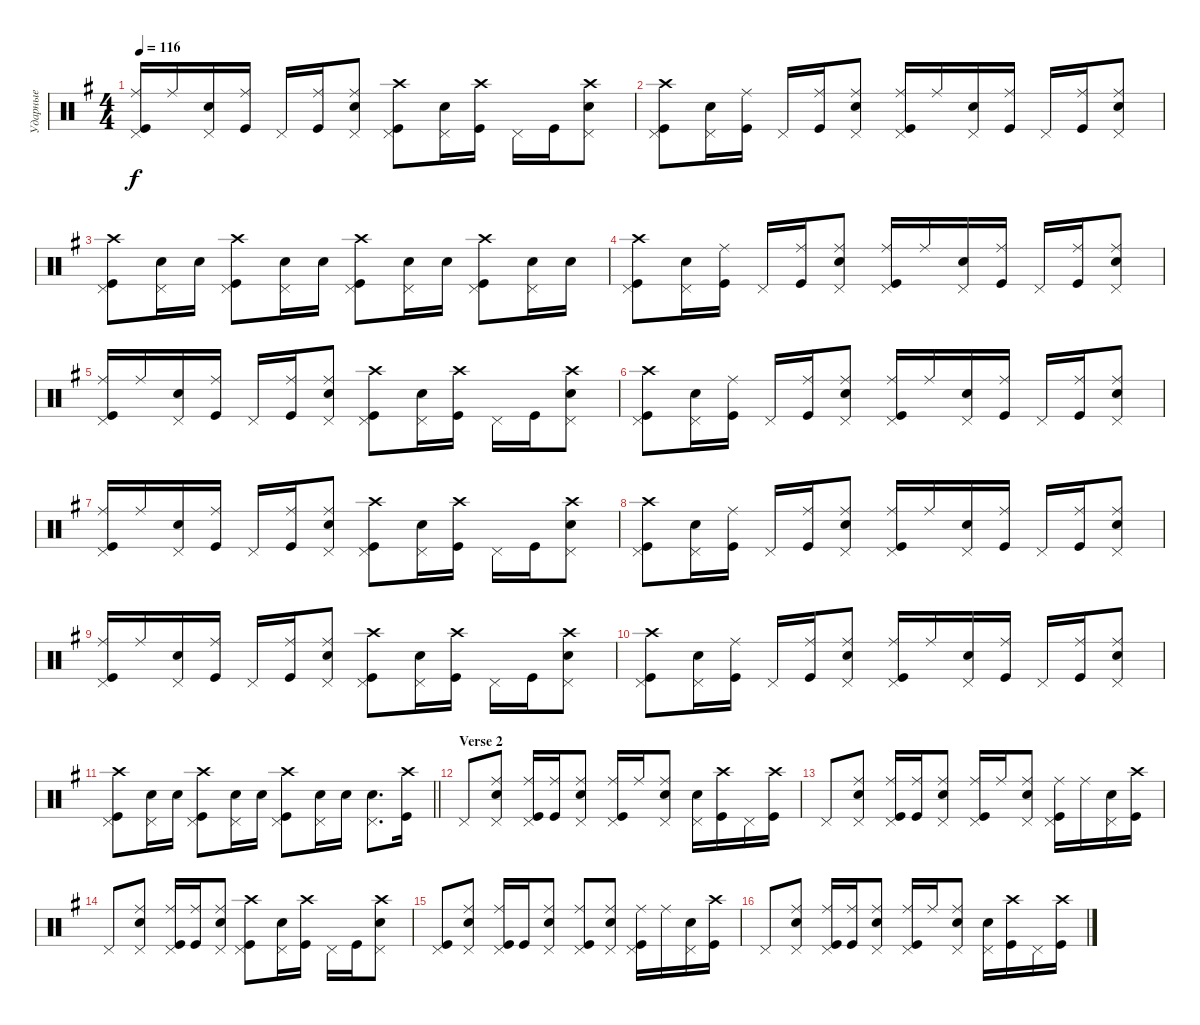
\track ("Ударные" "Ударные") {instrument percussion}
\staff {score}
\articulation defaults
\ts (4 4)
\tempo 116
\clef neutral
\ks eminor
("Kick (hit)" "Ride (middle)" "Pedal Hi-Hat (hit)").16{dy f} "Ride (middle)".16 ("Snare (hit) 2" "Pedal Hi-Hat (hit)").16 ("Kick (hit)" "Ride (middle)").16 "Pedal Hi-Hat (hit)".16 ("Ride (middle)" "Kick (hit)").16 ("Snare (hit) 2" "Ride (middle)" "Pedal Hi-Hat (hit)").8 ("Kick (hit)" "Crash high (hit)" "Pedal Hi-Hat (hit)").8 ("Snare (hit) 2" "Pedal Hi-Hat (hit)").16 ("Kick (hit)" "Crash high (hit)").16 "Pedal Hi-Hat (hit)".16 "Kick (hit)".16 ("Crash high (hit)" "Snare (hit) 2" "Pedal Hi-Hat (hit)").8 |
("Kick (hit)" "Crash high (hit)" "Pedal Hi-Hat (hit)").8 ("Snare (hit) 2" "Pedal Hi-Hat (hit)").16 ("Kick (hit)" "Ride (middle)").16 "Pedal Hi-Hat (hit)".16 ("Ride (middle)" "Kick (hit)").16 ("Snare (hit) 2" "Ride (middle)" "Pedal Hi-Hat (hit)").8 ("Kick (hit)" "Ride (middle)" "Pedal Hi-Hat (hit)").16 "Ride (middle)".16 ("Snare (hit) 2" "Pedal Hi-Hat (hit)").16 ("Kick (hit)" "Ride (middle)").16 "Pedal Hi-Hat (hit)".16 ("Ride (middle)" "Kick (hit)").16 ("Ride (middle)" "Snare (hit) 2" "Pedal Hi-Hat (hit)").8 |
("Kick (hit)" "Crash high (hit)" "Pedal Hi-Hat (hit)").8 ("Snare (hit) 2" "Pedal Hi-Hat (hit)").16 "Snare (hit) 2".16 ("Kick (hit)" "Crash high (hit)" "Pedal Hi-Hat (hit)").8 ("Snare (hit) 2" "Pedal Hi-Hat (hit)").16 "Snare (hit) 2".16 ("Kick (hit)" "Crash high (hit)" "Pedal Hi-Hat (hit)").8 ("Snare (hit) 2" "Pedal Hi-Hat (hit)").16 "Snare (hit) 2".16 ("Kick (hit)" "Crash high (hit)" "Pedal Hi-Hat (hit)").8 ("Snare (hit) 2" "Pedal Hi-Hat (hit)").16 "Snare (hit) 2".16 |
("Kick (hit)" "Crash high (hit)" "Pedal Hi-Hat (hit)").8 ("Snare (hit) 2" "Pedal Hi-Hat (hit)").16 ("Kick (hit)" "Ride (middle)").16 "Pedal Hi-Hat (hit)".16 ("Ride (middle)" "Kick (hit)").16 ("Snare (hit) 2" "Ride (middle)" "Pedal Hi-Hat (hit)").8 ("Kick (hit)" "Ride (middle)" "Pedal Hi-Hat (hit)").16 "Ride (middle)".16 ("Snare (hit) 2" "Pedal Hi-Hat (hit)").16 ("Kick (hit)" "Ride (middle)").16 "Pedal Hi-Hat (hit)".16 ("Ride (middle)" "Kick (hit)").16 ("Ride (middle)" "Snare (hit) 2" "Pedal Hi-Hat (hit)").8 |
("Kick (hit)" "Ride (middle)" "Pedal Hi-Hat (hit)").16 "Ride (middle)".16 ("Snare (hit) 2" "Pedal Hi-Hat (hit)").16 ("Kick (hit)" "Ride (middle)").16 "Pedal Hi-Hat (hit)".16 ("Ride (middle)" "Kick (hit)").16 ("Snare (hit) 2" "Ride (middle)" "Pedal Hi-Hat (hit)").8 ("Kick (hit)" "Crash high (hit)" "Pedal Hi-Hat (hit)").8 ("Snare (hit) 2" "Pedal Hi-Hat (hit)").16 ("Kick (hit)" "Crash high (hit)").16 "Pedal Hi-Hat (hit)".16 "Kick (hit)".16 ("Crash high (hit)" "Snare (hit) 2" "Pedal Hi-Hat (hit)").8 |
("Kick (hit)" "Crash high (hit)" "Pedal Hi-Hat (hit)").8 ("Snare (hit) 2" "Pedal Hi-Hat (hit)").16 ("Kick (hit)" "Ride (middle)").16 "Pedal Hi-Hat (hit)".16 ("Ride (middle)" "Kick (hit)").16 ("Snare (hit) 2" "Ride (middle)" "Pedal Hi-Hat (hit)").8 ("Kick (hit)" "Ride (middle)" "Pedal Hi-Hat (hit)").16 "Ride (middle)".16 ("Snare (hit) 2" "Pedal Hi-Hat (hit)").16 ("Kick (hit)" "Ride (middle)").16 "Pedal Hi-Hat (hit)".16 ("Ride (middle)" "Kick (hit)").16 ("Ride (middle)" "Snare (hit) 2" "Pedal Hi-Hat (hit)").8 |
("Kick (hit)" "Ride (middle)" "Pedal Hi-Hat (hit)").16 "Ride (middle)".16 ("Snare (hit) 2" "Pedal Hi-Hat (hit)").16 ("Kick (hit)" "Ride (middle)").16 "Pedal Hi-Hat (hit)".16 ("Ride (middle)" "Kick (hit)").16 ("Snare (hit) 2" "Ride (middle)" "Pedal Hi-Hat (hit)").8 ("Kick (hit)" "Crash high (hit)" "Pedal Hi-Hat (hit)").8 ("Snare (hit) 2" "Pedal Hi-Hat (hit)").16 ("Kick (hit)" "Crash high (hit)").16 "Pedal Hi-Hat (hit)".16 "Kick (hit)".16 ("Crash high (hit)" "Snare (hit) 2" "Pedal Hi-Hat (hit)").8 |
("Kick (hit)" "Crash high (hit)" "Pedal Hi-Hat (hit)").8 ("Snare (hit) 2" "Pedal Hi-Hat (hit)").16 ("Kick (hit)" "Ride (middle)").16 "Pedal Hi-Hat (hit)".16 ("Ride (middle)" "Kick (hit)").16 ("Snare (hit) 2" "Ride (middle)" "Pedal Hi-Hat (hit)").8 ("Kick (hit)" "Ride (middle)" "Pedal Hi-Hat (hit)").16 "Ride (middle)".16 ("Snare (hit) 2" "Pedal Hi-Hat (hit)").16 ("Kick (hit)" "Ride (middle)").16 "Pedal Hi-Hat (hit)".16 ("Ride (middle)" "Kick (hit)").16 ("Ride (middle)" "Snare (hit) 2" "Pedal Hi-Hat (hit)").8 |
("Kick (hit)" "Ride (middle)" "Pedal Hi-Hat (hit)").16 "Ride (middle)".16 ("Snare (hit) 2" "Pedal Hi-Hat (hit)").16 ("Kick (hit)" "Ride (middle)").16 "Pedal Hi-Hat (hit)".16 ("Ride (middle)" "Kick (hit)").16 ("Snare (hit) 2" "Ride (middle)" "Pedal Hi-Hat (hit)").8 ("Kick (hit)" "Crash high (hit)" "Pedal Hi-Hat (hit)").8 ("Snare (hit) 2" "Pedal Hi-Hat (hit)").16 ("Kick (hit)" "Crash high (hit)").16 "Pedal Hi-Hat (hit)".16 "Kick (hit)".16 ("Crash high (hit)" "Snare (hit) 2" "Pedal Hi-Hat (hit)").8 |
("Kick (hit)" "Crash high (hit)" "Pedal Hi-Hat (hit)").8 ("Snare (hit) 2" "Pedal Hi-Hat (hit)").16 ("Kick (hit)" "Ride (middle)").16 "Pedal Hi-Hat (hit)".16 ("Ride (middle)" "Kick (hit)").16 ("Snare (hit) 2" "Ride (middle)" "Pedal Hi-Hat (hit)").8 ("Kick (hit)" "Ride (middle)" "Pedal Hi-Hat (hit)").16 "Ride (middle)".16 ("Snare (hit) 2" "Pedal Hi-Hat (hit)").16 ("Kick (hit)" "Ride (middle)").16 "Pedal Hi-Hat (hit)".16 ("Ride (middle)" "Kick (hit)").16 ("Ride (middle)" "Snare (hit) 2" "Pedal Hi-Hat (hit)").8 |
\barLineRight lightlight
("Kick (hit)" "Crash high (hit)" "Pedal Hi-Hat (hit)").8 ("Snare (hit) 2" "Pedal Hi-Hat (hit)").16 "Snare (hit) 2".16 ("Kick (hit)" "Crash high (hit)" "Pedal Hi-Hat (hit)").8 ("Snare (hit) 2" "Pedal Hi-Hat (hit)").16 "Snare (hit) 2".16 ("Kick (hit)" "Crash high (hit)" "Pedal Hi-Hat (hit)").8 ("Snare (hit) 2" "Pedal Hi-Hat (hit)").16 "Snare (hit) 2".16 ("Snare (hit) 2" "Pedal Hi-Hat (hit)").8{d} ("Kick (hit)" "Crash high (hit)").16 |
\section ("" "Verse 2")
"Pedal Hi-Hat (hit)".8 ("Snare (hit) 2" "Pedal Hi-Hat (hit)" "Ride (middle)").8 ("Kick (hit)" "Pedal Hi-Hat (hit)" "Ride (middle)").16 ("Kick (hit)" "Ride (middle)").16 ("Snare (hit) 2" "Pedal Hi-Hat (hit)" "Ride (middle)").8 ("Pedal Hi-Hat (hit)" "Kick (hit)" "Ride (middle)").16 "Ride (middle)".16 ("Snare (hit) 2" "Pedal Hi-Hat (hit)" "Ride (middle)").8 ("Snare (hit) 2" "Pedal Hi-Hat (hit)").16 ("Kick (hit)" "Crash high (hit)").16 "Pedal Hi-Hat (hit)".16 ("Kick (hit)" "Crash high (hit)").16 |
"Pedal Hi-Hat (hit)".8 ("Snare (hit) 2" "Pedal Hi-Hat (hit)" "Ride (middle)").8 ("Kick (hit)" "Pedal Hi-Hat (hit)" "Ride (middle)").16 ("Kick (hit)" "Ride (middle)").16 ("Snare (hit) 2" "Pedal Hi-Hat (hit)" "Ride (middle)").8 ("Kick (hit)" "Pedal Hi-Hat (hit)" "Ride (middle)").16 "Ride (middle)".16 ("Snare (hit) 2" "Pedal Hi-Hat (hit)" "Ride (middle)").8 ("Kick (hit)" "Ride (middle)" "Pedal Hi-Hat (hit)").16 "Ride (middle)".16 ("Snare (hit) 2" "Pedal Hi-Hat (hit)").16 ("Kick (hit)" "Crash high (hit)").16 |
"Pedal Hi-Hat (hit)".8 ("Snare (hit) 2" "Ride (middle)" "Pedal Hi-Hat (hit)").8 ("Kick (hit)" "Ride (middle)" "Pedal Hi-Hat (hit)").16 ("Kick (hit)" "Ride (middle)").16 ("Snare (hit) 2" "Ride (middle)" "Pedal Hi-Hat (hit)").8 ("Kick (hit)" "Crash high (hit)" "Pedal Hi-Hat (hit)").8 ("Snare (hit) 2" "Pedal Hi-Hat (hit)").16 ("Kick (hit)" "Crash high (hit)").16 "Pedal Hi-Hat (hit)".16 "Kick (hit)".16 ("Snare (hit) 2" "Crash high (hit)" "Pedal Hi-Hat (hit)").8 |
("Kick (hit)" "Pedal Hi-Hat (hit)").8 ("Snare (hit) 2" "Pedal Hi-Hat (hit)" "Ride (middle)").8 ("Kick (hit)" "Pedal Hi-Hat (hit)" "Ride (middle)").16 "Kick (hit)".16 ("Snare (hit) 2" "Pedal Hi-Hat (hit)" "Ride (middle)").8 ("Kick (hit)" "Pedal Hi-Hat (hit)" "Ride (middle)").8{bd 120} ("Snare (hit) 2" "Pedal Hi-Hat (hit)" "Ride (middle)").8 ("Kick (hit)" "Pedal Hi-Hat (hit)" "Ride (middle)").16{bd 120} "Ride (middle)".16 ("Snare (hit) 2" "Pedal Hi-Hat (hit)").16 ("Kick (hit)" "Crash high (hit)").16 |
"Pedal Hi-Hat (hit)".8 ("Snare (hit) 2" "Pedal Hi-Hat (hit)" "Ride (middle)").8 ("Kick (hit)" "Pedal Hi-Hat (hit)" "Ride (middle)").16 ("Kick (hit)" "Ride (middle)").16 ("Snare (hit) 2" "Pedal Hi-Hat (hit)" "Ride (middle)").8 ("Pedal Hi-Hat (hit)" "Kick (hit)" "Ride (middle)").16 "Ride (middle)".16 ("Snare (hit) 2" "Pedal Hi-Hat (hit)" "Ride (middle)").8 ("Snare (hit) 2" "Pedal Hi-Hat (hit)").16 ("Kick (hit)" "Crash high (hit)").16 "Pedal Hi-Hat (hit)".16 ("Kick (hit)" "Crash high (hit)").16
